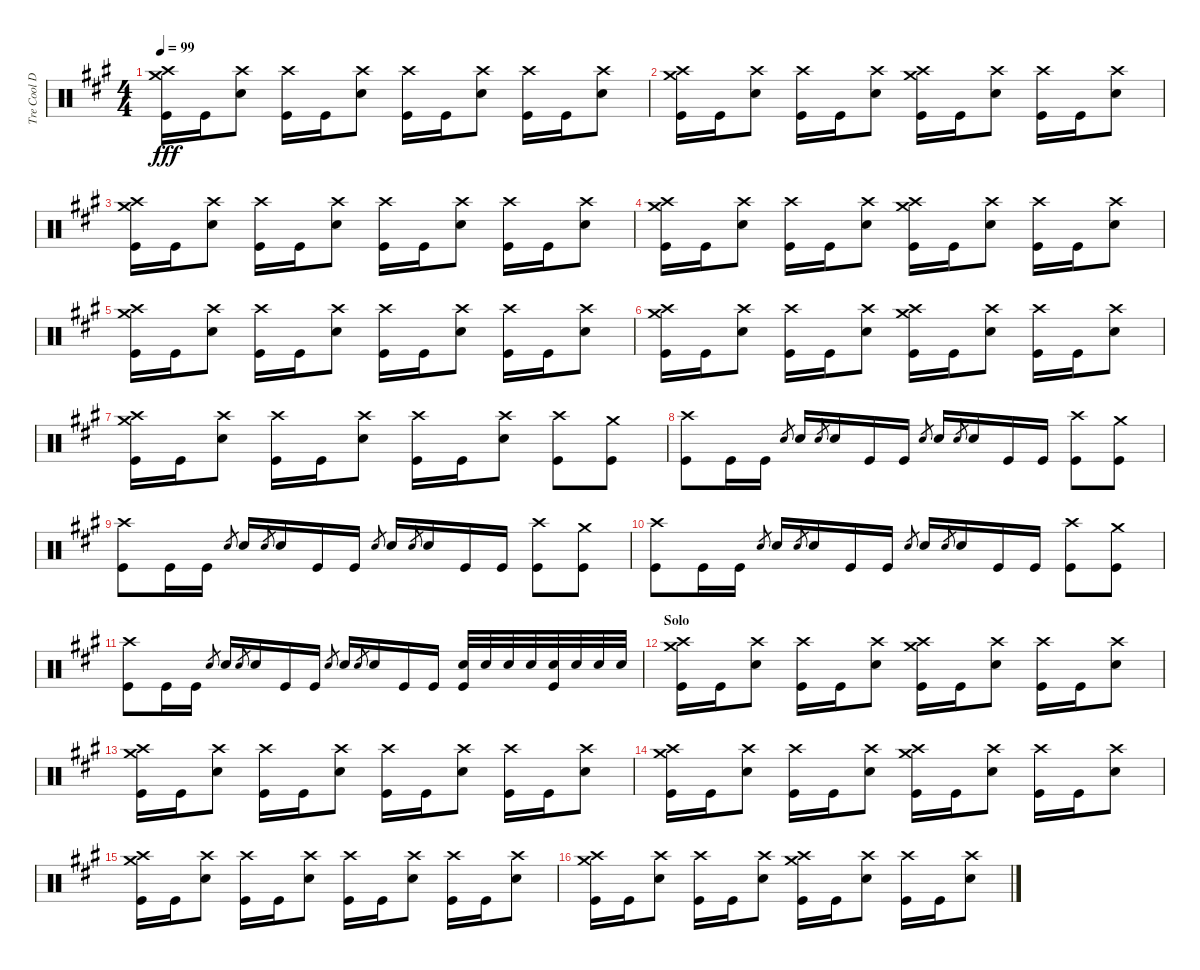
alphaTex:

\track ("Tre Cool Drums" "Tre Cool D") {instrument percussion}
\staff {score}
\articulation defaults
\ts (4 4)
\tempo 99
\clef neutral
\ks a
("Kick (hit)" "Crash high (hit)" "Crash medium (hit)").16{dy fff} "Kick (hit)".16 ("Snare (hit) 2" "Crash high (hit)").8 ("Kick (hit)" "Crash high (hit)").16 "Kick (hit)".16 ("Snare (hit) 2" "Crash high (hit)").8 ("Kick (hit)" "Crash high (hit)").16 "Kick (hit)".16 ("Snare (hit) 2" "Crash high (hit)").8 ("Kick (hit)" "Crash high (hit)").16 "Kick (hit)".16 ("Snare (hit) 2" "Crash high (hit)").8 |
("Kick (hit)" "Crash high (hit)" "Crash medium (hit)").16 "Kick (hit)".16 ("Snare (hit) 2" "Crash high (hit)").8 ("Kick (hit)" "Crash high (hit)").16 "Kick (hit)".16 ("Snare (hit) 2" "Crash high (hit)").8 ("Kick (hit)" "Crash high (hit)" "Crash medium (hit)").16 "Kick (hit)".16 ("Snare (hit) 2" "Crash high (hit)").8 ("Kick (hit)" "Crash high (hit)").16 "Kick (hit)".16 ("Snare (hit) 2" "Crash high (hit)").8 |
("Kick (hit)" "Crash high (hit)" "Crash medium (hit)").16 "Kick (hit)".16 ("Snare (hit) 2" "Crash high (hit)").8 ("Kick (hit)" "Crash high (hit)").16 "Kick (hit)".16 ("Snare (hit) 2" "Crash high (hit)").8 ("Kick (hit)" "Crash high (hit)").16 "Kick (hit)".16 ("Snare (hit) 2" "Crash high (hit)").8 ("Kick (hit)" "Crash high (hit)").16 "Kick (hit)".16 ("Snare (hit) 2" "Crash high (hit)").8 |
("Kick (hit)" "Crash high (hit)" "Crash medium (hit)").16 "Kick (hit)".16 ("Snare (hit) 2" "Crash high (hit)").8 ("Kick (hit)" "Crash high (hit)").16 "Kick (hit)".16 ("Snare (hit) 2" "Crash high (hit)").8 ("Kick (hit)" "Crash high (hit)" "Crash medium (hit)").16 "Kick (hit)".16 ("Snare (hit) 2" "Crash high (hit)").8 ("Kick (hit)" "Crash high (hit)").16 "Kick (hit)".16 ("Snare (hit) 2" "Crash high (hit)").8 |
("Kick (hit)" "Crash high (hit)" "Crash medium (hit)").16 "Kick (hit)".16 ("Snare (hit) 2" "Crash high (hit)").8 ("Kick (hit)" "Crash high (hit)").16 "Kick (hit)".16 ("Snare (hit) 2" "Crash high (hit)").8 ("Kick (hit)" "Crash high (hit)").16 "Kick (hit)".16 ("Snare (hit) 2" "Crash high (hit)").8 ("Kick (hit)" "Crash high (hit)").16 "Kick (hit)".16 ("Snare (hit) 2" "Crash high (hit)").8 |
("Kick (hit)" "Crash high (hit)" "Crash medium (hit)").16 "Kick (hit)".16 ("Snare (hit) 2" "Crash high (hit)").8 ("Kick (hit)" "Crash high (hit)").16 "Kick (hit)".16 ("Snare (hit) 2" "Crash high (hit)").8 ("Kick (hit)" "Crash high (hit)" "Crash medium (hit)").16 "Kick (hit)".16 ("Snare (hit) 2" "Crash high (hit)").8 ("Kick (hit)" "Crash high (hit)").16 "Kick (hit)".16 ("Snare (hit) 2" "Crash high (hit)").8 |
("Kick (hit)" "Crash high (hit)" "Crash medium (hit)").16 "Kick (hit)".16 ("Snare (hit) 2" "Crash high (hit)").8 ("Kick (hit)" "Crash high (hit)").16 "Kick (hit)".16 ("Snare (hit) 2" "Crash high (hit)").8 ("Kick (hit)" "Crash high (hit)").16 "Kick (hit)".16 ("Snare (hit) 2" "Crash high (hit)").8 ("Kick (hit)" "Crash high (hit)").8 ("Kick (hit)" "Crash medium (hit)").8 |
("Kick (hit)" "Crash high (hit)").8 "Kick (hit)".16 "Kick (hit)".16 "Snare (hit)".8{gr} "Snare (hit) 2".16 "Snare (hit)".8{gr} "Snare (hit) 2".16 "Kick (hit)".16 "Kick (hit)".16 "Snare (hit)".8{gr} "Snare (hit) 2".16 "Snare (hit)".8{gr} "Snare (hit) 2".16 "Kick (hit)".16 "Kick (hit)".16 ("Kick (hit)" "Crash high (hit)").8 ("Kick (hit)" "Crash medium (hit)").8 |
("Kick (hit)" "Crash high (hit)").8 "Kick (hit)".16 "Kick (hit)".16 "Snare (hit)".8{gr} "Snare (hit) 2".16 "Snare (hit)".8{gr} "Snare (hit) 2".16 "Kick (hit)".16 "Kick (hit)".16 "Snare (hit)".8{gr} "Snare (hit) 2".16 "Snare (hit)".8{gr} "Snare (hit) 2".16 "Kick (hit)".16 "Kick (hit)".16 ("Kick (hit)" "Crash high (hit)").8 ("Kick (hit)" "Crash medium (hit)").8 |
("Kick (hit)" "Crash high (hit)").8 "Kick (hit)".16 "Kick (hit)".16 "Snare (hit)".8{gr} "Snare (hit) 2".16 "Snare (hit)".8{gr} "Snare (hit) 2".16 "Kick (hit)".16 "Kick (hit)".16 "Snare (hit)".8{gr} "Snare (hit) 2".16 "Snare (hit)".8{gr} "Snare (hit) 2".16 "Kick (hit)".16 "Kick (hit)".16 ("Kick (hit)" "Crash high (hit)").8 ("Kick (hit)" "Crash medium (hit)").8 |
("Kick (hit)" "Crash high (hit)").8 "Kick (hit)".16 "Kick (hit)".16 "Snare (hit)".8{gr} "Snare (hit) 2".16 "Snare (hit)".8{gr} "Snare (hit) 2".16 "Kick (hit)".16 "Kick (hit)".16 "Snare (hit)".8{gr} "Snare (hit) 2".16 "Snare (hit)".8{gr} "Snare (hit) 2".16 "Kick (hit)".16 "Kick (hit)".16 ("Snare (hit) 2" "Kick (hit)").32 "Snare (hit) 2".32 "Snare (hit) 2".32 "Snare (hit) 2".32 ("Snare (hit) 2" "Kick (hit)").32 "Snare (hit) 2".32 "Snare (hit) 2".32 "Snare (hit) 2".32 |
\section ("" "Solo")
("Kick (hit)" "Crash high (hit)" "Crash medium (hit)").16 "Kick (hit)".16 ("Snare (hit) 2" "Crash high (hit)").8 ("Kick (hit)" "Crash high (hit)").16 "Kick (hit)".16 ("Snare (hit) 2" "Crash high (hit)").8 ("Kick (hit)" "Crash high (hit)" "Crash medium (hit)").16 "Kick (hit)".16 ("Snare (hit) 2" "Crash high (hit)").8 ("Kick (hit)" "Crash high (hit)").16 "Kick (hit)".16 ("Snare (hit) 2" "Crash high (hit)").8 |
("Kick (hit)" "Crash high (hit)" "Crash medium (hit)").16 "Kick (hit)".16 ("Snare (hit) 2" "Crash high (hit)").8 ("Kick (hit)" "Crash high (hit)").16 "Kick (hit)".16 ("Snare (hit) 2" "Crash high (hit)").8 ("Kick (hit)" "Crash high (hit)").16 "Kick (hit)".16 ("Snare (hit) 2" "Crash high (hit)").8 ("Kick (hit)" "Crash high (hit)").16 "Kick (hit)".16 ("Snare (hit) 2" "Crash high (hit)").8 |
("Kick (hit)" "Crash high (hit)" "Crash medium (hit)").16 "Kick (hit)".16 ("Snare (hit) 2" "Crash high (hit)").8 ("Kick (hit)" "Crash high (hit)").16 "Kick (hit)".16 ("Snare (hit) 2" "Crash high (hit)").8 ("Kick (hit)" "Crash high (hit)" "Crash medium (hit)").16 "Kick (hit)".16 ("Snare (hit) 2" "Crash high (hit)").8 ("Kick (hit)" "Crash high (hit)").16 "Kick (hit)".16 ("Snare (hit) 2" "Crash high (hit)").8 |
("Kick (hit)" "Crash high (hit)" "Crash medium (hit)").16 "Kick (hit)".16 ("Snare (hit) 2" "Crash high (hit)").8 ("Kick (hit)" "Crash high (hit)").16 "Kick (hit)".16 ("Snare (hit) 2" "Crash high (hit)").8 ("Kick (hit)" "Crash high (hit)").16 "Kick (hit)".16 ("Snare (hit) 2" "Crash high (hit)").8 ("Kick (hit)" "Crash high (hit)").16 "Kick (hit)".16 ("Snare (hit) 2" "Crash high (hit)").8 |
("Kick (hit)" "Crash high (hit)" "Crash medium (hit)").16 "Kick (hit)".16 ("Snare (hit) 2" "Crash high (hit)").8 ("Kick (hit)" "Crash high (hit)").16 "Kick (hit)".16 ("Snare (hit) 2" "Crash high (hit)").8 ("Kick (hit)" "Crash high (hit)" "Crash medium (hit)").16 "Kick (hit)".16 ("Snare (hit) 2" "Crash high (hit)").8 ("Kick (hit)" "Crash high (hit)").16 "Kick (hit)".16 ("Snare (hit) 2" "Crash high (hit)").8
